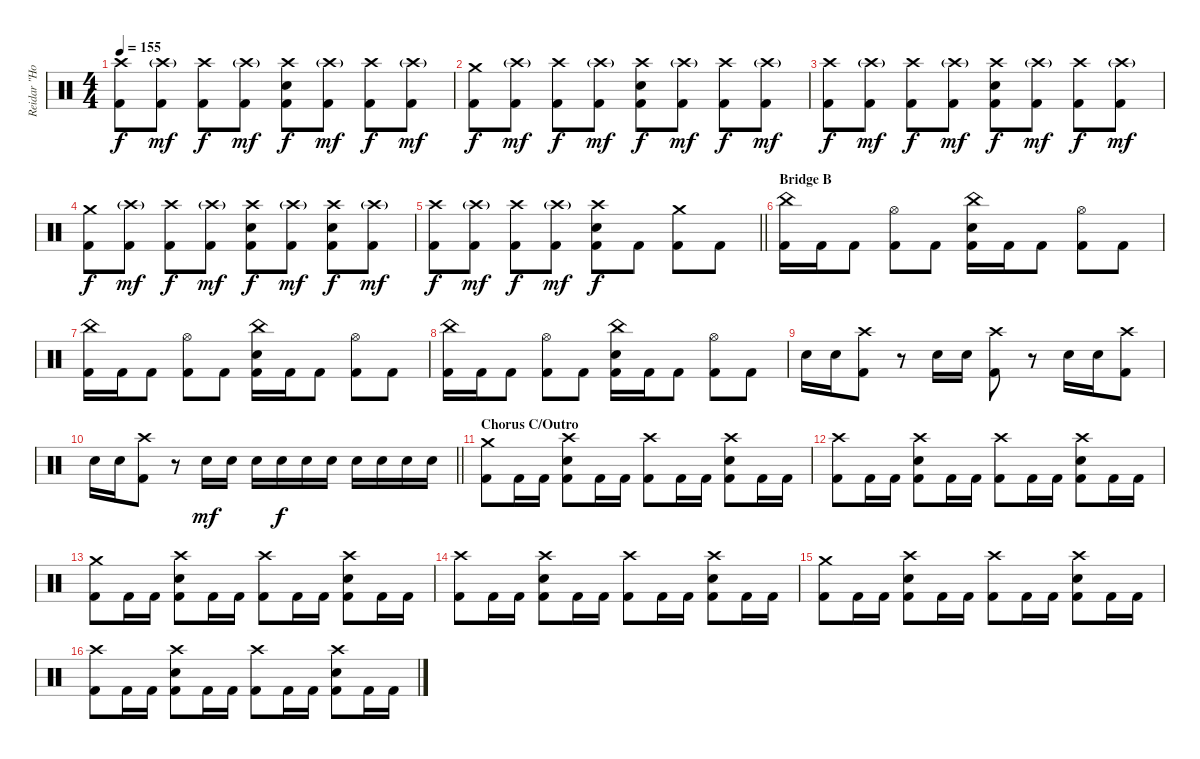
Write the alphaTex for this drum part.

\track ("Reidar \"Horgh\" Horghagen " "Reidar \"Ho") {instrument percussion}
\staff {score}
\articulation defaults
\ts (4 4)
\tempo 155
\clef neutral
\ks c
("Crash high (hit)" "Kick (hit) 2").8{dy f} ("Crash high (hit)"{g} "Kick (hit) 2").8{dy mf} ("Crash high (hit)" "Kick (hit) 2").8{dy f} ("Crash high (hit)"{g} "Kick (hit) 2").8{dy mf} ("Crash high (hit)" "Snare (hit) 2" "Kick (hit) 2").8{dy f} ("Crash high (hit)"{g} "Kick (hit) 2").8{dy mf} ("Crash high (hit)" "Kick (hit) 2").8{dy f} ("Crash high (hit)"{g} "Kick (hit) 2").8{dy mf} |
("Crash medium (hit)" "Kick (hit) 2").8{dy f} ("Crash high (hit)"{g} "Kick (hit) 2").8{dy mf} ("Crash high (hit)" "Kick (hit) 2").8{dy f} ("Crash high (hit)"{g} "Kick (hit) 2").8{dy mf} ("Crash high (hit)" "Snare (hit) 2" "Kick (hit) 2").8{dy f} ("Crash high (hit)"{g} "Kick (hit) 2").8{dy mf} ("Crash high (hit)" "Kick (hit) 2").8{dy f} ("Crash high (hit)"{g} "Kick (hit) 2").8{dy mf} |
("Crash high (hit)" "Kick (hit) 2").8{dy f} ("Crash high (hit)"{g} "Kick (hit) 2").8{dy mf} ("Crash high (hit)" "Kick (hit) 2").8{dy f} ("Crash high (hit)"{g} "Kick (hit) 2").8{dy mf} ("Crash high (hit)" "Snare (hit) 2" "Kick (hit) 2").8{dy f} ("Crash high (hit)"{g} "Kick (hit) 2").8{dy mf} ("Crash high (hit)" "Kick (hit) 2").8{dy f} ("Crash high (hit)"{g} "Kick (hit) 2").8{dy mf} |
("Crash medium (hit)" "Kick (hit) 2").8{dy f} ("Crash high (hit)"{g} "Kick (hit) 2").8{dy mf} ("Crash high (hit)" "Kick (hit) 2").8{dy f} ("Crash high (hit)"{g} "Kick (hit) 2").8{dy mf} ("Crash high (hit)" "Snare (hit) 2" "Kick (hit) 2").8{dy f} ("Crash high (hit)"{g} "Kick (hit) 2").8{dy mf} ("Crash high (hit)" "Snare (hit) 2" "Kick (hit) 2").8{dy f} ("Crash high (hit)"{g} "Kick (hit) 2").8{dy mf} |
\barLineRight lightlight
("Crash high (hit)" "Kick (hit) 2").8{dy f} ("Crash high (hit)"{g} "Kick (hit) 2").8{dy mf} ("Crash high (hit)" "Kick (hit) 2").8{dy f} ("Crash high (hit)"{g} "Kick (hit) 2").8{dy mf} ("Crash high (hit)" "Snare (hit) 2" "Kick (hit) 2").8{dy f} "Kick (hit) 2".8 ("Crash medium (hit)" "Kick (hit) 2").8 "Kick (hit) 2".8 |
\section ("" "Bridge B")
("China (hit)" "Kick (hit) 2").16 "Kick (hit) 2".16 "Kick (hit) 2".8 ("Hi-Hat (open)" "Kick (hit) 2").8 "Kick (hit) 2".8 ("China (hit)" "Snare (hit) 2" "Kick (hit) 2").16 "Kick (hit) 2".16 "Kick (hit) 2".8 ("Hi-Hat (open)" "Kick (hit) 2").8 "Kick (hit) 2".8 |
("China (hit)" "Kick (hit) 2").16 "Kick (hit) 2".16 "Kick (hit) 2".8 ("Hi-Hat (open)" "Kick (hit) 2").8 "Kick (hit) 2".8 ("China (hit)" "Snare (hit) 2" "Kick (hit) 2").16 "Kick (hit) 2".16 "Kick (hit) 2".8 ("Hi-Hat (open)" "Kick (hit) 2").8 "Kick (hit) 2".8 |
("China (hit)" "Kick (hit) 2").16 "Kick (hit) 2".16 "Kick (hit) 2".8 ("Hi-Hat (open)" "Kick (hit) 2").8 "Kick (hit) 2".8 ("China (hit)" "Snare (hit) 2" "Kick (hit) 2").16 "Kick (hit) 2".16 "Kick (hit) 2".8 ("Hi-Hat (open)" "Kick (hit) 2").8 "Kick (hit) 2".8 |
"Snare (hit) 2".16 "Snare (hit) 2".16 ("Crash high (hit)" "Kick (hit) 2").8 r.8 "Snare (hit) 2".16 "Snare (hit) 2".16 ("Crash high (hit)" "Kick (hit) 2").8 r.8 "Snare (hit) 2".16 "Snare (hit) 2".16 ("Crash high (hit)" "Kick (hit) 2").8 |
\barLineRight lightlight "Snare (hit) 2".16 "Snare (hit) 2".16
("Crash high (hit)" "Kick (hit) 2").8 r.8 "Snare (hit) 2".16{dy mf} "Snare (hit) 2".16 "Snare (hit) 2".16 "Snare (hit) 2".16{dy f} "Snare (hit) 2".16 "Snare (hit) 2".16 "Snare (hit) 2".16 "Snare (hit) 2".16 "Snare (hit) 2".16 "Snare (hit) 2".16 |
\section ("" "Chorus C/Outro")
("Crash medium (hit)" "Kick (hit) 2").8 "Kick (hit) 2".16 "Kick (hit) 2".16 ("Crash high (hit)" "Snare (hit) 2" "Kick (hit) 2").8 "Kick (hit) 2".16 "Kick (hit) 2".16 ("Crash high (hit)" "Kick (hit) 2").8 "Kick (hit) 2".16 "Kick (hit) 2".16 ("Crash high (hit)" "Snare (hit) 2" "Kick (hit) 2").8 "Kick (hit) 2".16 "Kick (hit) 2".16 |
("Crash high (hit)" "Kick (hit) 2").8 "Kick (hit) 2".16 "Kick (hit) 2".16 ("Crash high (hit)" "Snare (hit) 2" "Kick (hit) 2").8 "Kick (hit) 2".16 "Kick (hit) 2".16 ("Crash high (hit)" "Kick (hit) 2").8 "Kick (hit) 2".16 "Kick (hit) 2".16 ("Crash high (hit)" "Snare (hit) 2" "Kick (hit) 2").8 "Kick (hit) 2".16 "Kick (hit) 2".16 |
("Crash medium (hit)" "Kick (hit) 2").8 "Kick (hit) 2".16 "Kick (hit) 2".16 ("Crash high (hit)" "Snare (hit) 2" "Kick (hit) 2").8 "Kick (hit) 2".16 "Kick (hit) 2".16 ("Crash high (hit)" "Kick (hit) 2").8 "Kick (hit) 2".16 "Kick (hit) 2".16 ("Crash high (hit)" "Snare (hit) 2" "Kick (hit) 2").8 "Kick (hit) 2".16 "Kick (hit) 2".16 |
("Crash high (hit)" "Kick (hit) 2").8 "Kick (hit) 2".16 "Kick (hit) 2".16 ("Crash high (hit)" "Snare (hit) 2" "Kick (hit) 2").8 "Kick (hit) 2".16 "Kick (hit) 2".16 ("Crash high (hit)" "Kick (hit) 2").8 "Kick (hit) 2".16 "Kick (hit) 2".16 ("Crash high (hit)" "Snare (hit) 2" "Kick (hit) 2").8 "Kick (hit) 2".16 "Kick (hit) 2".16 |
("Crash medium (hit)" "Kick (hit) 2").8 "Kick (hit) 2".16 "Kick (hit) 2".16 ("Crash high (hit)" "Snare (hit) 2" "Kick (hit) 2").8 "Kick (hit) 2".16 "Kick (hit) 2".16 ("Crash high (hit)" "Kick (hit) 2").8 "Kick (hit) 2".16 "Kick (hit) 2".16 ("Crash high (hit)" "Snare (hit) 2" "Kick (hit) 2").8 "Kick (hit) 2".16 "Kick (hit) 2".16 |
("Crash high (hit)" "Kick (hit) 2").8 "Kick (hit) 2".16 "Kick (hit) 2".16 ("Crash high (hit)" "Snare (hit) 2" "Kick (hit) 2").8 "Kick (hit) 2".16 "Kick (hit) 2".16 ("Crash high (hit)" "Kick (hit) 2").8 "Kick (hit) 2".16 "Kick (hit) 2".16 ("Crash high (hit)" "Snare (hit) 2" "Kick (hit) 2").8 "Kick (hit) 2".16 "Kick (hit) 2".16
